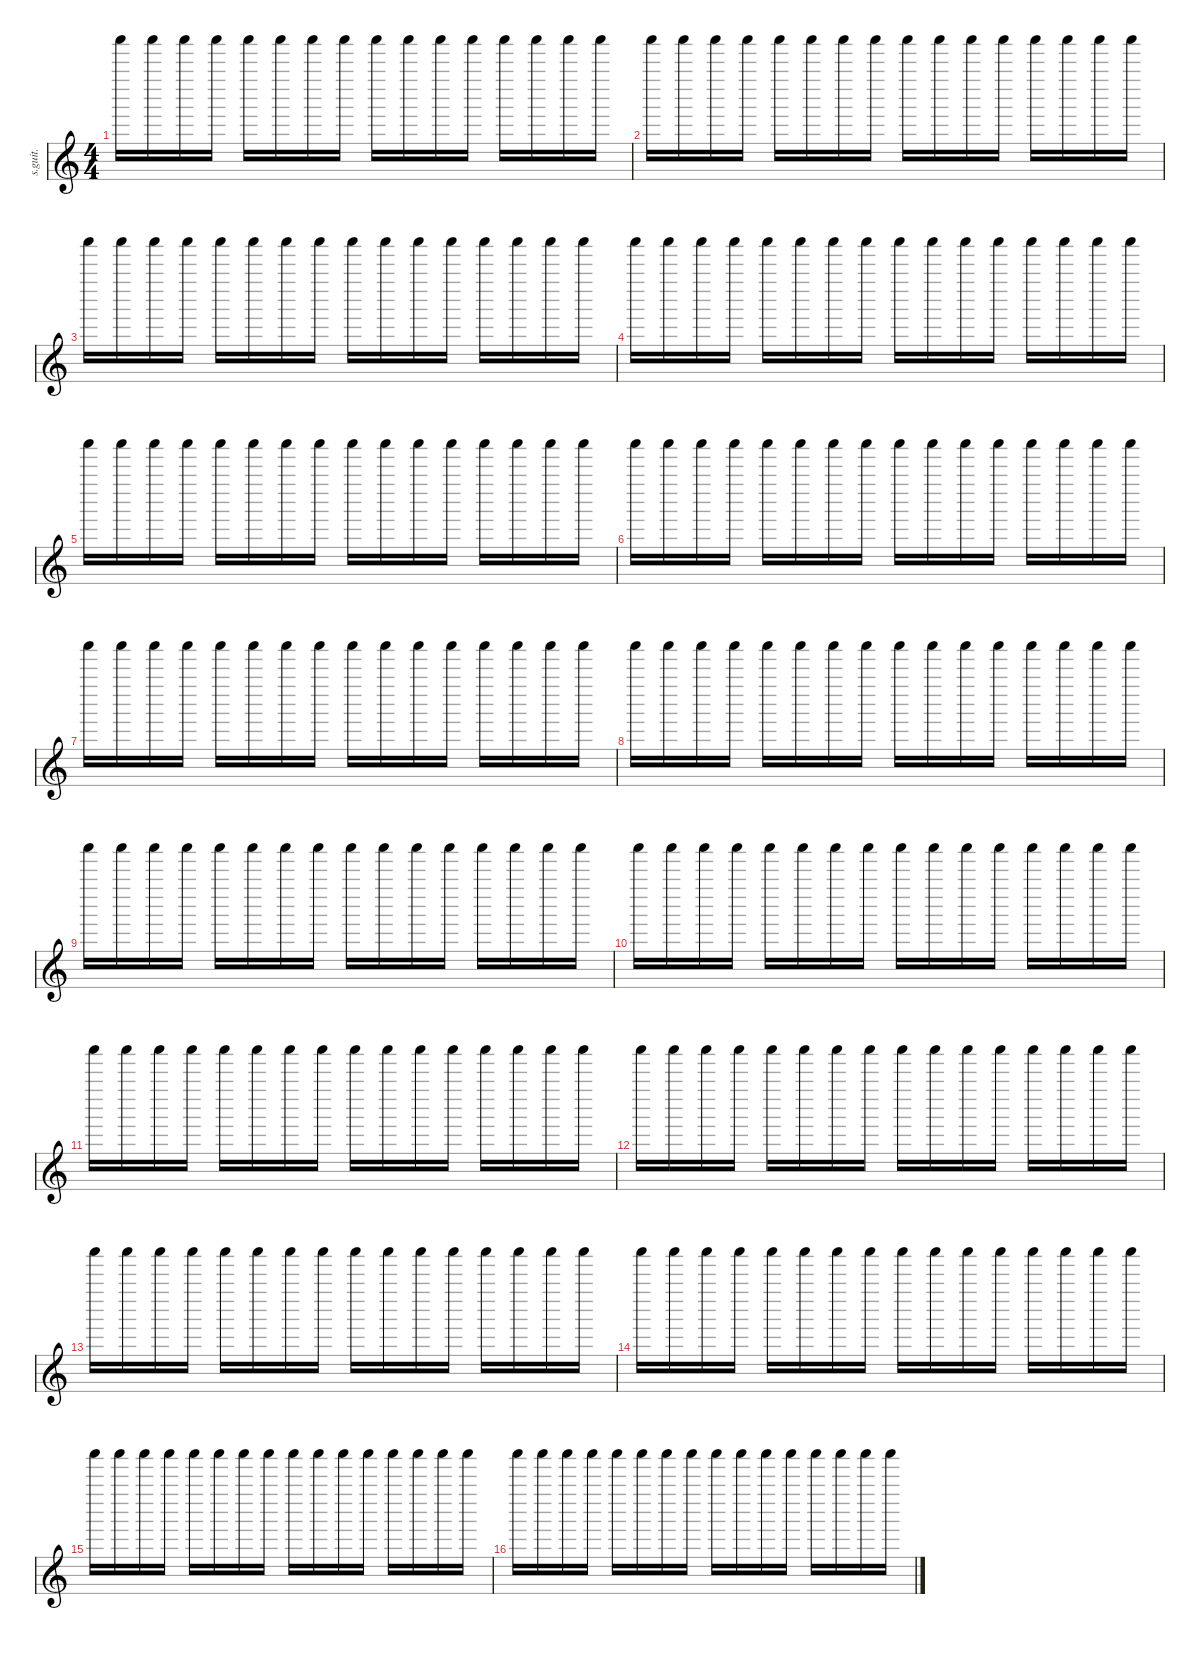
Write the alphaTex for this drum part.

\defaultSystemsLayout 4
\hideDynamics
\bracketExtendMode nobrackets
\track ("Shaker" "s.guit.") {instrument percussion}
\staff {score}
\articulation defaults
\ts (4 4)
\tempo (69 hide)
\clef g2
\ks c "Shaker (hit)".16{lyrics (0 "") lyrics (1 "") lyrics (2 "") lyrics (3 "") lyrics (4 "") dy mp} "Shaker (hit)".16{lyrics (0 "") lyrics (1 "") lyrics (2 "") lyrics (3 "") lyrics (4 "")} "Shaker (hit)".16{lyrics (0 "") lyrics (1 "") lyrics (2 "") lyrics (3 "") lyrics (4 "")} "Shaker (hit)".16{lyrics (0 "") lyrics (1 "") lyrics (2 "") lyrics (3 "") lyrics (4 "")} "Shaker (hit)".16{lyrics (0 "") lyrics (1 "") lyrics (2 "") lyrics (3 "") lyrics (4 "")} "Shaker (hit)".16{lyrics (0 "") lyrics (1 "") lyrics (2 "") lyrics (3 "") lyrics (4 "")} "Shaker (hit)".16{lyrics (0 "") lyrics (1 "") lyrics (2 "") lyrics (3 "") lyrics (4 "")} "Shaker (hit)".16{lyrics (0 "") lyrics (1 "") lyrics (2 "") lyrics (3 "") lyrics (4 "")} "Shaker (hit)".16{lyrics (0 "") lyrics (1 "") lyrics (2 "") lyrics (3 "") lyrics (4 "")} "Shaker (hit)".16{lyrics (0 "") lyrics (1 "") lyrics (2 "") lyrics (3 "") lyrics (4 "")} "Shaker (hit)".16{lyrics (0 "") lyrics (1 "") lyrics (2 "") lyrics (3 "") lyrics (4 "")} "Shaker (hit)".16{lyrics (0 "") lyrics (1 "") lyrics (2 "") lyrics (3 "") lyrics (4 "")} "Shaker (hit)".16{lyrics (0 "") lyrics (1 "") lyrics (2 "") lyrics (3 "") lyrics (4 "")} "Shaker (hit)".16{lyrics (0 "") lyrics (1 "") lyrics (2 "") lyrics (3 "") lyrics (4 "")} "Shaker (hit)".16{lyrics (0 "") lyrics (1 "") lyrics (2 "") lyrics (3 "") lyrics (4 "")} "Shaker (hit)".16{lyrics (0 "") lyrics (1 "") lyrics (2 "") lyrics (3 "") lyrics (4 "")}
|
"Shaker (hit)".16{lyrics (0 "") lyrics (1 "") lyrics (2 "") lyrics (3 "") lyrics (4 "")} "Shaker (hit)".16{lyrics (0 "") lyrics (1 "") lyrics (2 "") lyrics (3 "") lyrics (4 "")} "Shaker (hit)".16{lyrics (0 "") lyrics (1 "") lyrics (2 "") lyrics (3 "") lyrics (4 "")} "Shaker (hit)".16{lyrics (0 "") lyrics (1 "") lyrics (2 "") lyrics (3 "") lyrics (4 "")} "Shaker (hit)".16{lyrics (0 "") lyrics (1 "") lyrics (2 "") lyrics (3 "") lyrics (4 "")} "Shaker (hit)".16{lyrics (0 "") lyrics (1 "") lyrics (2 "") lyrics (3 "") lyrics (4 "")} "Shaker (hit)".16{lyrics (0 "") lyrics (1 "") lyrics (2 "") lyrics (3 "") lyrics (4 "")} "Shaker (hit)".16{lyrics (0 "") lyrics (1 "") lyrics (2 "") lyrics (3 "") lyrics (4 "")} "Shaker (hit)".16{lyrics (0 "") lyrics (1 "") lyrics (2 "") lyrics (3 "") lyrics (4 "")} "Shaker (hit)".16{lyrics (0 "") lyrics (1 "") lyrics (2 "") lyrics (3 "") lyrics (4 "")} "Shaker (hit)".16{lyrics (0 "") lyrics (1 "") lyrics (2 "") lyrics (3 "") lyrics (4 "")} "Shaker (hit)".16{lyrics (0 "") lyrics (1 "") lyrics (2 "") lyrics (3 "") lyrics (4 "")} "Shaker (hit)".16{lyrics (0 "") lyrics (1 "") lyrics (2 "") lyrics (3 "") lyrics (4 "")} "Shaker (hit)".16{lyrics (0 "") lyrics (1 "") lyrics (2 "") lyrics (3 "") lyrics (4 "")} "Shaker (hit)".16{lyrics (0 "") lyrics (1 "") lyrics (2 "") lyrics (3 "") lyrics (4 "")} "Shaker (hit)".16{lyrics (0 "") lyrics (1 "") lyrics (2 "") lyrics (3 "") lyrics (4 "")} |
"Shaker (hit)".16{lyrics (0 "") lyrics (1 "") lyrics (2 "") lyrics (3 "") lyrics (4 "")} "Shaker (hit)".16{lyrics (0 "") lyrics (1 "") lyrics (2 "") lyrics (3 "") lyrics (4 "")} "Shaker (hit)".16{lyrics (0 "") lyrics (1 "") lyrics (2 "") lyrics (3 "") lyrics (4 "")} "Shaker (hit)".16{lyrics (0 "") lyrics (1 "") lyrics (2 "") lyrics (3 "") lyrics (4 "")} "Shaker (hit)".16{lyrics (0 "") lyrics (1 "") lyrics (2 "") lyrics (3 "") lyrics (4 "")} "Shaker (hit)".16{lyrics (0 "") lyrics (1 "") lyrics (2 "") lyrics (3 "") lyrics (4 "")} "Shaker (hit)".16{lyrics (0 "") lyrics (1 "") lyrics (2 "") lyrics (3 "") lyrics (4 "")} "Shaker (hit)".16{lyrics (0 "") lyrics (1 "") lyrics (2 "") lyrics (3 "") lyrics (4 "")} "Shaker (hit)".16{lyrics (0 "") lyrics (1 "") lyrics (2 "") lyrics (3 "") lyrics (4 "")} "Shaker (hit)".16{lyrics (0 "") lyrics (1 "") lyrics (2 "") lyrics (3 "") lyrics (4 "")} "Shaker (hit)".16{lyrics (0 "") lyrics (1 "") lyrics (2 "") lyrics (3 "") lyrics (4 "")} "Shaker (hit)".16{lyrics (0 "") lyrics (1 "") lyrics (2 "") lyrics (3 "") lyrics (4 "")} "Shaker (hit)".16{lyrics (0 "") lyrics (1 "") lyrics (2 "") lyrics (3 "") lyrics (4 "")} "Shaker (hit)".16{lyrics (0 "") lyrics (1 "") lyrics (2 "") lyrics (3 "") lyrics (4 "")} "Shaker (hit)".16{lyrics (0 "") lyrics (1 "") lyrics (2 "") lyrics (3 "") lyrics (4 "")} "Shaker (hit)".16{lyrics (0 "") lyrics (1 "") lyrics (2 "") lyrics (3 "") lyrics (4 "")} |
"Shaker (hit)".16{lyrics (0 "") lyrics (1 "") lyrics (2 "") lyrics (3 "") lyrics (4 "")} "Shaker (hit)".16{lyrics (0 "") lyrics (1 "") lyrics (2 "") lyrics (3 "") lyrics (4 "")} "Shaker (hit)".16{lyrics (0 "") lyrics (1 "") lyrics (2 "") lyrics (3 "") lyrics (4 "")} "Shaker (hit)".16{lyrics (0 "") lyrics (1 "") lyrics (2 "") lyrics (3 "") lyrics (4 "")} "Shaker (hit)".16{lyrics (0 "") lyrics (1 "") lyrics (2 "") lyrics (3 "") lyrics (4 "")} "Shaker (hit)".16{lyrics (0 "") lyrics (1 "") lyrics (2 "") lyrics (3 "") lyrics (4 "")} "Shaker (hit)".16{lyrics (0 "") lyrics (1 "") lyrics (2 "") lyrics (3 "") lyrics (4 "")} "Shaker (hit)".16{lyrics (0 "") lyrics (1 "") lyrics (2 "") lyrics (3 "") lyrics (4 "")} "Shaker (hit)".16{lyrics (0 "") lyrics (1 "") lyrics (2 "") lyrics (3 "") lyrics (4 "")} "Shaker (hit)".16{lyrics (0 "") lyrics (1 "") lyrics (2 "") lyrics (3 "") lyrics (4 "")} "Shaker (hit)".16{lyrics (0 "") lyrics (1 "") lyrics (2 "") lyrics (3 "") lyrics (4 "")} "Shaker (hit)".16{lyrics (0 "") lyrics (1 "") lyrics (2 "") lyrics (3 "") lyrics (4 "")} "Shaker (hit)".16{lyrics (0 "") lyrics (1 "") lyrics (2 "") lyrics (3 "") lyrics (4 "")} "Shaker (hit)".16{lyrics (0 "") lyrics (1 "") lyrics (2 "") lyrics (3 "") lyrics (4 "")} "Shaker (hit)".16{lyrics (0 "") lyrics (1 "") lyrics (2 "") lyrics (3 "") lyrics (4 "")} "Shaker (hit)".16{lyrics (0 "") lyrics (1 "") lyrics (2 "") lyrics (3 "") lyrics (4 "")} |
"Shaker (hit)".16{lyrics (0 "") lyrics (1 "") lyrics (2 "") lyrics (3 "") lyrics (4 "")} "Shaker (hit)".16{lyrics (0 "") lyrics (1 "") lyrics (2 "") lyrics (3 "") lyrics (4 "")} "Shaker (hit)".16{lyrics (0 "") lyrics (1 "") lyrics (2 "") lyrics (3 "") lyrics (4 "")} "Shaker (hit)".16{lyrics (0 "") lyrics (1 "") lyrics (2 "") lyrics (3 "") lyrics (4 "")} "Shaker (hit)".16{lyrics (0 "") lyrics (1 "") lyrics (2 "") lyrics (3 "") lyrics (4 "")} "Shaker (hit)".16{lyrics (0 "") lyrics (1 "") lyrics (2 "") lyrics (3 "") lyrics (4 "")} "Shaker (hit)".16{lyrics (0 "") lyrics (1 "") lyrics (2 "") lyrics (3 "") lyrics (4 "")} "Shaker (hit)".16{lyrics (0 "") lyrics (1 "") lyrics (2 "") lyrics (3 "") lyrics (4 "")} "Shaker (hit)".16{lyrics (0 "") lyrics (1 "") lyrics (2 "") lyrics (3 "") lyrics (4 "")} "Shaker (hit)".16{lyrics (0 "") lyrics (1 "") lyrics (2 "") lyrics (3 "") lyrics (4 "")} "Shaker (hit)".16{lyrics (0 "") lyrics (1 "") lyrics (2 "") lyrics (3 "") lyrics (4 "")} "Shaker (hit)".16{lyrics (0 "") lyrics (1 "") lyrics (2 "") lyrics (3 "") lyrics (4 "")} "Shaker (hit)".16{lyrics (0 "") lyrics (1 "") lyrics (2 "") lyrics (3 "") lyrics (4 "")} "Shaker (hit)".16{lyrics (0 "") lyrics (1 "") lyrics (2 "") lyrics (3 "") lyrics (4 "")} "Shaker (hit)".16{lyrics (0 "") lyrics (1 "") lyrics (2 "") lyrics (3 "") lyrics (4 "")} "Shaker (hit)".16{lyrics (0 "") lyrics (1 "") lyrics (2 "") lyrics (3 "") lyrics (4 "")} |
"Shaker (hit)".16{lyrics (0 "") lyrics (1 "") lyrics (2 "") lyrics (3 "") lyrics (4 "")} "Shaker (hit)".16{lyrics (0 "") lyrics (1 "") lyrics (2 "") lyrics (3 "") lyrics (4 "")} "Shaker (hit)".16{lyrics (0 "") lyrics (1 "") lyrics (2 "") lyrics (3 "") lyrics (4 "")} "Shaker (hit)".16{lyrics (0 "") lyrics (1 "") lyrics (2 "") lyrics (3 "") lyrics (4 "")} "Shaker (hit)".16{lyrics (0 "") lyrics (1 "") lyrics (2 "") lyrics (3 "") lyrics (4 "")} "Shaker (hit)".16{lyrics (0 "") lyrics (1 "") lyrics (2 "") lyrics (3 "") lyrics (4 "")} "Shaker (hit)".16{lyrics (0 "") lyrics (1 "") lyrics (2 "") lyrics (3 "") lyrics (4 "")} "Shaker (hit)".16{lyrics (0 "") lyrics (1 "") lyrics (2 "") lyrics (3 "") lyrics (4 "")} "Shaker (hit)".16{lyrics (0 "") lyrics (1 "") lyrics (2 "") lyrics (3 "") lyrics (4 "")} "Shaker (hit)".16{lyrics (0 "") lyrics (1 "") lyrics (2 "") lyrics (3 "") lyrics (4 "")} "Shaker (hit)".16{lyrics (0 "") lyrics (1 "") lyrics (2 "") lyrics (3 "") lyrics (4 "")} "Shaker (hit)".16{lyrics (0 "") lyrics (1 "") lyrics (2 "") lyrics (3 "") lyrics (4 "")} "Shaker (hit)".16{lyrics (0 "") lyrics (1 "") lyrics (2 "") lyrics (3 "") lyrics (4 "")} "Shaker (hit)".16{lyrics (0 "") lyrics (1 "") lyrics (2 "") lyrics (3 "") lyrics (4 "")} "Shaker (hit)".16{lyrics (0 "") lyrics (1 "") lyrics (2 "") lyrics (3 "") lyrics (4 "")} "Shaker (hit)".16{lyrics (0 "") lyrics (1 "") lyrics (2 "") lyrics (3 "") lyrics (4 "")} |
"Shaker (hit)".16{lyrics (0 "") lyrics (1 "") lyrics (2 "") lyrics (3 "") lyrics (4 "")} "Shaker (hit)".16{lyrics (0 "") lyrics (1 "") lyrics (2 "") lyrics (3 "") lyrics (4 "")} "Shaker (hit)".16{lyrics (0 "") lyrics (1 "") lyrics (2 "") lyrics (3 "") lyrics (4 "")} "Shaker (hit)".16{lyrics (0 "") lyrics (1 "") lyrics (2 "") lyrics (3 "") lyrics (4 "")} "Shaker (hit)".16{lyrics (0 "") lyrics (1 "") lyrics (2 "") lyrics (3 "") lyrics (4 "")} "Shaker (hit)".16{lyrics (0 "") lyrics (1 "") lyrics (2 "") lyrics (3 "") lyrics (4 "")} "Shaker (hit)".16{lyrics (0 "") lyrics (1 "") lyrics (2 "") lyrics (3 "") lyrics (4 "")} "Shaker (hit)".16{lyrics (0 "") lyrics (1 "") lyrics (2 "") lyrics (3 "") lyrics (4 "")} "Shaker (hit)".16{lyrics (0 "") lyrics (1 "") lyrics (2 "") lyrics (3 "") lyrics (4 "")} "Shaker (hit)".16{lyrics (0 "") lyrics (1 "") lyrics (2 "") lyrics (3 "") lyrics (4 "")} "Shaker (hit)".16{lyrics (0 "") lyrics (1 "") lyrics (2 "") lyrics (3 "") lyrics (4 "")} "Shaker (hit)".16{lyrics (0 "") lyrics (1 "") lyrics (2 "") lyrics (3 "") lyrics (4 "")} "Shaker (hit)".16{lyrics (0 "") lyrics (1 "") lyrics (2 "") lyrics (3 "") lyrics (4 "")} "Shaker (hit)".16{lyrics (0 "") lyrics (1 "") lyrics (2 "") lyrics (3 "") lyrics (4 "")} "Shaker (hit)".16{lyrics (0 "") lyrics (1 "") lyrics (2 "") lyrics (3 "") lyrics (4 "")} "Shaker (hit)".16{lyrics (0 "") lyrics (1 "") lyrics (2 "") lyrics (3 "") lyrics (4 "")} |
"Shaker (hit)".16{lyrics (0 "") lyrics (1 "") lyrics (2 "") lyrics (3 "") lyrics (4 "")} "Shaker (hit)".16{lyrics (0 "") lyrics (1 "") lyrics (2 "") lyrics (3 "") lyrics (4 "")} "Shaker (hit)".16{lyrics (0 "") lyrics (1 "") lyrics (2 "") lyrics (3 "") lyrics (4 "")} "Shaker (hit)".16{lyrics (0 "") lyrics (1 "") lyrics (2 "") lyrics (3 "") lyrics (4 "")} "Shaker (hit)".16{lyrics (0 "") lyrics (1 "") lyrics (2 "") lyrics (3 "") lyrics (4 "")} "Shaker (hit)".16{lyrics (0 "") lyrics (1 "") lyrics (2 "") lyrics (3 "") lyrics (4 "")} "Shaker (hit)".16{lyrics (0 "") lyrics (1 "") lyrics (2 "") lyrics (3 "") lyrics (4 "")} "Shaker (hit)".16{lyrics (0 "") lyrics (1 "") lyrics (2 "") lyrics (3 "") lyrics (4 "")} "Shaker (hit)".16{lyrics (0 "") lyrics (1 "") lyrics (2 "") lyrics (3 "") lyrics (4 "")} "Shaker (hit)".16{lyrics (0 "") lyrics (1 "") lyrics (2 "") lyrics (3 "") lyrics (4 "")} "Shaker (hit)".16{lyrics (0 "") lyrics (1 "") lyrics (2 "") lyrics (3 "") lyrics (4 "")} "Shaker (hit)".16{lyrics (0 "") lyrics (1 "") lyrics (2 "") lyrics (3 "") lyrics (4 "")} "Shaker (hit)".16{lyrics (0 "") lyrics (1 "") lyrics (2 "") lyrics (3 "") lyrics (4 "")} "Shaker (hit)".16{lyrics (0 "") lyrics (1 "") lyrics (2 "") lyrics (3 "") lyrics (4 "")} "Shaker (hit)".16{lyrics (0 "") lyrics (1 "") lyrics (2 "") lyrics (3 "") lyrics (4 "")} "Shaker (hit)".16{lyrics (0 "") lyrics (1 "") lyrics (2 "") lyrics (3 "") lyrics (4 "")} |
"Shaker (hit)".16{lyrics (0 "") lyrics (1 "") lyrics (2 "") lyrics (3 "") lyrics (4 "")} "Shaker (hit)".16{lyrics (0 "") lyrics (1 "") lyrics (2 "") lyrics (3 "") lyrics (4 "")} "Shaker (hit)".16{lyrics (0 "") lyrics (1 "") lyrics (2 "") lyrics (3 "") lyrics (4 "")} "Shaker (hit)".16{lyrics (0 "") lyrics (1 "") lyrics (2 "") lyrics (3 "") lyrics (4 "")} "Shaker (hit)".16{lyrics (0 "") lyrics (1 "") lyrics (2 "") lyrics (3 "") lyrics (4 "")} "Shaker (hit)".16{lyrics (0 "") lyrics (1 "") lyrics (2 "") lyrics (3 "") lyrics (4 "")} "Shaker (hit)".16{lyrics (0 "") lyrics (1 "") lyrics (2 "") lyrics (3 "") lyrics (4 "")} "Shaker (hit)".16{lyrics (0 "") lyrics (1 "") lyrics (2 "") lyrics (3 "") lyrics (4 "")} "Shaker (hit)".16{lyrics (0 "") lyrics (1 "") lyrics (2 "") lyrics (3 "") lyrics (4 "")} "Shaker (hit)".16{lyrics (0 "") lyrics (1 "") lyrics (2 "") lyrics (3 "") lyrics (4 "")} "Shaker (hit)".16{lyrics (0 "") lyrics (1 "") lyrics (2 "") lyrics (3 "") lyrics (4 "")} "Shaker (hit)".16{lyrics (0 "") lyrics (1 "") lyrics (2 "") lyrics (3 "") lyrics (4 "")} "Shaker (hit)".16{lyrics (0 "") lyrics (1 "") lyrics (2 "") lyrics (3 "") lyrics (4 "")} "Shaker (hit)".16{lyrics (0 "") lyrics (1 "") lyrics (2 "") lyrics (3 "") lyrics (4 "")} "Shaker (hit)".16{lyrics (0 "") lyrics (1 "") lyrics (2 "") lyrics (3 "") lyrics (4 "")} "Shaker (hit)".16{lyrics (0 "") lyrics (1 "") lyrics (2 "") lyrics (3 "") lyrics (4 "")} |
"Shaker (hit)".16{lyrics (0 "") lyrics (1 "") lyrics (2 "") lyrics (3 "") lyrics (4 "")} "Shaker (hit)".16{lyrics (0 "") lyrics (1 "") lyrics (2 "") lyrics (3 "") lyrics (4 "")} "Shaker (hit)".16{lyrics (0 "") lyrics (1 "") lyrics (2 "") lyrics (3 "") lyrics (4 "")} "Shaker (hit)".16{lyrics (0 "") lyrics (1 "") lyrics (2 "") lyrics (3 "") lyrics (4 "")} "Shaker (hit)".16{lyrics (0 "") lyrics (1 "") lyrics (2 "") lyrics (3 "") lyrics (4 "")} "Shaker (hit)".16{lyrics (0 "") lyrics (1 "") lyrics (2 "") lyrics (3 "") lyrics (4 "")} "Shaker (hit)".16{lyrics (0 "") lyrics (1 "") lyrics (2 "") lyrics (3 "") lyrics (4 "")} "Shaker (hit)".16{lyrics (0 "") lyrics (1 "") lyrics (2 "") lyrics (3 "") lyrics (4 "")} "Shaker (hit)".16{lyrics (0 "") lyrics (1 "") lyrics (2 "") lyrics (3 "") lyrics (4 "")} "Shaker (hit)".16{lyrics (0 "") lyrics (1 "") lyrics (2 "") lyrics (3 "") lyrics (4 "")} "Shaker (hit)".16{lyrics (0 "") lyrics (1 "") lyrics (2 "") lyrics (3 "") lyrics (4 "")} "Shaker (hit)".16{lyrics (0 "") lyrics (1 "") lyrics (2 "") lyrics (3 "") lyrics (4 "")} "Shaker (hit)".16{lyrics (0 "") lyrics (1 "") lyrics (2 "") lyrics (3 "") lyrics (4 "")} "Shaker (hit)".16{lyrics (0 "") lyrics (1 "") lyrics (2 "") lyrics (3 "") lyrics (4 "")} "Shaker (hit)".16{lyrics (0 "") lyrics (1 "") lyrics (2 "") lyrics (3 "") lyrics (4 "")} "Shaker (hit)".16{lyrics (0 "") lyrics (1 "") lyrics (2 "") lyrics (3 "") lyrics (4 "")} |
"Shaker (hit)".16{lyrics (0 "") lyrics (1 "") lyrics (2 "") lyrics (3 "") lyrics (4 "")} "Shaker (hit)".16{lyrics (0 "") lyrics (1 "") lyrics (2 "") lyrics (3 "") lyrics (4 "")} "Shaker (hit)".16{lyrics (0 "") lyrics (1 "") lyrics (2 "") lyrics (3 "") lyrics (4 "")} "Shaker (hit)".16{lyrics (0 "") lyrics (1 "") lyrics (2 "") lyrics (3 "") lyrics (4 "")} "Shaker (hit)".16{lyrics (0 "") lyrics (1 "") lyrics (2 "") lyrics (3 "") lyrics (4 "")} "Shaker (hit)".16{lyrics (0 "") lyrics (1 "") lyrics (2 "") lyrics (3 "") lyrics (4 "")} "Shaker (hit)".16{lyrics (0 "") lyrics (1 "") lyrics (2 "") lyrics (3 "") lyrics (4 "")} "Shaker (hit)".16{lyrics (0 "") lyrics (1 "") lyrics (2 "") lyrics (3 "") lyrics (4 "")} "Shaker (hit)".16{lyrics (0 "") lyrics (1 "") lyrics (2 "") lyrics (3 "") lyrics (4 "")} "Shaker (hit)".16{lyrics (0 "") lyrics (1 "") lyrics (2 "") lyrics (3 "") lyrics (4 "")} "Shaker (hit)".16{lyrics (0 "") lyrics (1 "") lyrics (2 "") lyrics (3 "") lyrics (4 "")} "Shaker (hit)".16{lyrics (0 "") lyrics (1 "") lyrics (2 "") lyrics (3 "") lyrics (4 "")} "Shaker (hit)".16{lyrics (0 "") lyrics (1 "") lyrics (2 "") lyrics (3 "") lyrics (4 "")} "Shaker (hit)".16{lyrics (0 "") lyrics (1 "") lyrics (2 "") lyrics (3 "") lyrics (4 "")} "Shaker (hit)".16{lyrics (0 "") lyrics (1 "") lyrics (2 "") lyrics (3 "") lyrics (4 "")} "Shaker (hit)".16{lyrics (0 "") lyrics (1 "") lyrics (2 "") lyrics (3 "") lyrics (4 "")} |
"Shaker (hit)".16{lyrics (0 "") lyrics (1 "") lyrics (2 "") lyrics (3 "") lyrics (4 "")} "Shaker (hit)".16{lyrics (0 "") lyrics (1 "") lyrics (2 "") lyrics (3 "") lyrics (4 "")} "Shaker (hit)".16{lyrics (0 "") lyrics (1 "") lyrics (2 "") lyrics (3 "") lyrics (4 "")} "Shaker (hit)".16{lyrics (0 "") lyrics (1 "") lyrics (2 "") lyrics (3 "") lyrics (4 "")} "Shaker (hit)".16{lyrics (0 "") lyrics (1 "") lyrics (2 "") lyrics (3 "") lyrics (4 "")} "Shaker (hit)".16{lyrics (0 "") lyrics (1 "") lyrics (2 "") lyrics (3 "") lyrics (4 "")} "Shaker (hit)".16{lyrics (0 "") lyrics (1 "") lyrics (2 "") lyrics (3 "") lyrics (4 "")} "Shaker (hit)".16{lyrics (0 "") lyrics (1 "") lyrics (2 "") lyrics (3 "") lyrics (4 "")} "Shaker (hit)".16{lyrics (0 "") lyrics (1 "") lyrics (2 "") lyrics (3 "") lyrics (4 "")} "Shaker (hit)".16{lyrics (0 "") lyrics (1 "") lyrics (2 "") lyrics (3 "") lyrics (4 "")} "Shaker (hit)".16{lyrics (0 "") lyrics (1 "") lyrics (2 "") lyrics (3 "") lyrics (4 "")} "Shaker (hit)".16{lyrics (0 "") lyrics (1 "") lyrics (2 "") lyrics (3 "") lyrics (4 "")} "Shaker (hit)".16{lyrics (0 "") lyrics (1 "") lyrics (2 "") lyrics (3 "") lyrics (4 "")} "Shaker (hit)".16{lyrics (0 "") lyrics (1 "") lyrics (2 "") lyrics (3 "") lyrics (4 "")} "Shaker (hit)".16{lyrics (0 "") lyrics (1 "") lyrics (2 "") lyrics (3 "") lyrics (4 "")} "Shaker (hit)".16{lyrics (0 "") lyrics (1 "") lyrics (2 "") lyrics (3 "") lyrics (4 "")} |
"Shaker (hit)".16{lyrics (0 "") lyrics (1 "") lyrics (2 "") lyrics (3 "") lyrics (4 "")} "Shaker (hit)".16{lyrics (0 "") lyrics (1 "") lyrics (2 "") lyrics (3 "") lyrics (4 "")} "Shaker (hit)".16{lyrics (0 "") lyrics (1 "") lyrics (2 "") lyrics (3 "") lyrics (4 "")} "Shaker (hit)".16{lyrics (0 "") lyrics (1 "") lyrics (2 "") lyrics (3 "") lyrics (4 "")} "Shaker (hit)".16{lyrics (0 "") lyrics (1 "") lyrics (2 "") lyrics (3 "") lyrics (4 "")} "Shaker (hit)".16{lyrics (0 "") lyrics (1 "") lyrics (2 "") lyrics (3 "") lyrics (4 "")} "Shaker (hit)".16{lyrics (0 "") lyrics (1 "") lyrics (2 "") lyrics (3 "") lyrics (4 "")} "Shaker (hit)".16{lyrics (0 "") lyrics (1 "") lyrics (2 "") lyrics (3 "") lyrics (4 "")} "Shaker (hit)".16{lyrics (0 "") lyrics (1 "") lyrics (2 "") lyrics (3 "") lyrics (4 "")} "Shaker (hit)".16{lyrics (0 "") lyrics (1 "") lyrics (2 "") lyrics (3 "") lyrics (4 "")} "Shaker (hit)".16{lyrics (0 "") lyrics (1 "") lyrics (2 "") lyrics (3 "") lyrics (4 "")} "Shaker (hit)".16{lyrics (0 "") lyrics (1 "") lyrics (2 "") lyrics (3 "") lyrics (4 "")} "Shaker (hit)".16{lyrics (0 "") lyrics (1 "") lyrics (2 "") lyrics (3 "") lyrics (4 "")} "Shaker (hit)".16{lyrics (0 "") lyrics (1 "") lyrics (2 "") lyrics (3 "") lyrics (4 "")} "Shaker (hit)".16{lyrics (0 "") lyrics (1 "") lyrics (2 "") lyrics (3 "") lyrics (4 "")} "Shaker (hit)".16{lyrics (0 "") lyrics (1 "") lyrics (2 "") lyrics (3 "") lyrics (4 "")} |
"Shaker (hit)".16{lyrics (0 "") lyrics (1 "") lyrics (2 "") lyrics (3 "") lyrics (4 "")} "Shaker (hit)".16{lyrics (0 "") lyrics (1 "") lyrics (2 "") lyrics (3 "") lyrics (4 "")} "Shaker (hit)".16{lyrics (0 "") lyrics (1 "") lyrics (2 "") lyrics (3 "") lyrics (4 "")} "Shaker (hit)".16{lyrics (0 "") lyrics (1 "") lyrics (2 "") lyrics (3 "") lyrics (4 "")} "Shaker (hit)".16{lyrics (0 "") lyrics (1 "") lyrics (2 "") lyrics (3 "") lyrics (4 "")} "Shaker (hit)".16{lyrics (0 "") lyrics (1 "") lyrics (2 "") lyrics (3 "") lyrics (4 "")} "Shaker (hit)".16{lyrics (0 "") lyrics (1 "") lyrics (2 "") lyrics (3 "") lyrics (4 "")} "Shaker (hit)".16{lyrics (0 "") lyrics (1 "") lyrics (2 "") lyrics (3 "") lyrics (4 "")} "Shaker (hit)".16{lyrics (0 "") lyrics (1 "") lyrics (2 "") lyrics (3 "") lyrics (4 "")} "Shaker (hit)".16{lyrics (0 "") lyrics (1 "") lyrics (2 "") lyrics (3 "") lyrics (4 "")} "Shaker (hit)".16{lyrics (0 "") lyrics (1 "") lyrics (2 "") lyrics (3 "") lyrics (4 "")} "Shaker (hit)".16{lyrics (0 "") lyrics (1 "") lyrics (2 "") lyrics (3 "") lyrics (4 "")} "Shaker (hit)".16{lyrics (0 "") lyrics (1 "") lyrics (2 "") lyrics (3 "") lyrics (4 "")} "Shaker (hit)".16{lyrics (0 "") lyrics (1 "") lyrics (2 "") lyrics (3 "") lyrics (4 "")} "Shaker (hit)".16{lyrics (0 "") lyrics (1 "") lyrics (2 "") lyrics (3 "") lyrics (4 "")} "Shaker (hit)".16{lyrics (0 "") lyrics (1 "") lyrics (2 "") lyrics (3 "") lyrics (4 "")} |
"Shaker (hit)".16{lyrics (0 "") lyrics (1 "") lyrics (2 "") lyrics (3 "") lyrics (4 "")} "Shaker (hit)".16{lyrics (0 "") lyrics (1 "") lyrics (2 "") lyrics (3 "") lyrics (4 "")} "Shaker (hit)".16{lyrics (0 "") lyrics (1 "") lyrics (2 "") lyrics (3 "") lyrics (4 "")} "Shaker (hit)".16{lyrics (0 "") lyrics (1 "") lyrics (2 "") lyrics (3 "") lyrics (4 "")} "Shaker (hit)".16{lyrics (0 "") lyrics (1 "") lyrics (2 "") lyrics (3 "") lyrics (4 "")} "Shaker (hit)".16{lyrics (0 "") lyrics (1 "") lyrics (2 "") lyrics (3 "") lyrics (4 "")} "Shaker (hit)".16{lyrics (0 "") lyrics (1 "") lyrics (2 "") lyrics (3 "") lyrics (4 "")} "Shaker (hit)".16{lyrics (0 "") lyrics (1 "") lyrics (2 "") lyrics (3 "") lyrics (4 "")} "Shaker (hit)".16{lyrics (0 "") lyrics (1 "") lyrics (2 "") lyrics (3 "") lyrics (4 "")} "Shaker (hit)".16{lyrics (0 "") lyrics (1 "") lyrics (2 "") lyrics (3 "") lyrics (4 "")} "Shaker (hit)".16{lyrics (0 "") lyrics (1 "") lyrics (2 "") lyrics (3 "") lyrics (4 "")} "Shaker (hit)".16{lyrics (0 "") lyrics (1 "") lyrics (2 "") lyrics (3 "") lyrics (4 "")} "Shaker (hit)".16{lyrics (0 "") lyrics (1 "") lyrics (2 "") lyrics (3 "") lyrics (4 "")} "Shaker (hit)".16{lyrics (0 "") lyrics (1 "") lyrics (2 "") lyrics (3 "") lyrics (4 "")} "Shaker (hit)".16{lyrics (0 "") lyrics (1 "") lyrics (2 "") lyrics (3 "") lyrics (4 "")} "Shaker (hit)".16{lyrics (0 "") lyrics (1 "") lyrics (2 "") lyrics (3 "") lyrics (4 "")} |
"Shaker (hit)".16{lyrics (0 "") lyrics (1 "") lyrics (2 "") lyrics (3 "") lyrics (4 "")} "Shaker (hit)".16{lyrics (0 "") lyrics (1 "") lyrics (2 "") lyrics (3 "") lyrics (4 "")} "Shaker (hit)".16{lyrics (0 "") lyrics (1 "") lyrics (2 "") lyrics (3 "") lyrics (4 "")} "Shaker (hit)".16{lyrics (0 "") lyrics (1 "") lyrics (2 "") lyrics (3 "") lyrics (4 "")} "Shaker (hit)".16{lyrics (0 "") lyrics (1 "") lyrics (2 "") lyrics (3 "") lyrics (4 "")} "Shaker (hit)".16{lyrics (0 "") lyrics (1 "") lyrics (2 "") lyrics (3 "") lyrics (4 "")} "Shaker (hit)".16{lyrics (0 "") lyrics (1 "") lyrics (2 "") lyrics (3 "") lyrics (4 "")} "Shaker (hit)".16{lyrics (0 "") lyrics (1 "") lyrics (2 "") lyrics (3 "") lyrics (4 "")} "Shaker (hit)".16{lyrics (0 "") lyrics (1 "") lyrics (2 "") lyrics (3 "") lyrics (4 "")} "Shaker (hit)".16{lyrics (0 "") lyrics (1 "") lyrics (2 "") lyrics (3 "") lyrics (4 "")} "Shaker (hit)".16{lyrics (0 "") lyrics (1 "") lyrics (2 "") lyrics (3 "") lyrics (4 "")} "Shaker (hit)".16{lyrics (0 "") lyrics (1 "") lyrics (2 "") lyrics (3 "") lyrics (4 "")} "Shaker (hit)".16{lyrics (0 "") lyrics (1 "") lyrics (2 "") lyrics (3 "") lyrics (4 "")} "Shaker (hit)".16{lyrics (0 "") lyrics (1 "") lyrics (2 "") lyrics (3 "") lyrics (4 "")} "Shaker (hit)".16{lyrics (0 "") lyrics (1 "") lyrics (2 "") lyrics (3 "") lyrics (4 "")} "Shaker (hit)".16{lyrics (0 "") lyrics (1 "") lyrics (2 "") lyrics (3 "") lyrics (4 "")}
